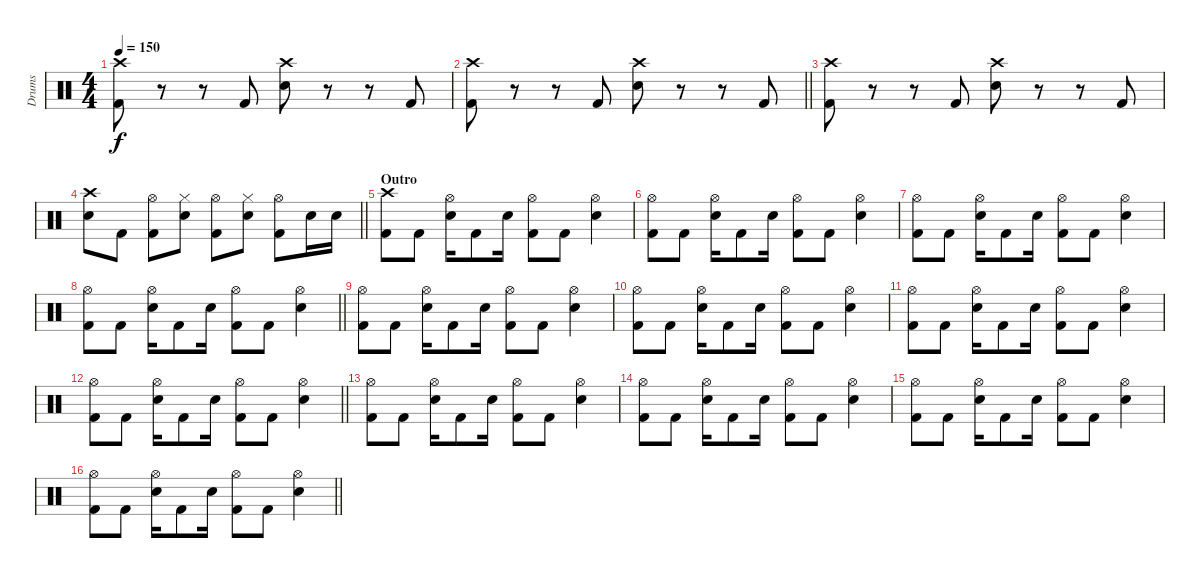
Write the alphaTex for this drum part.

\track ("Drums" "Drums") {instrument percussion}
\staff {score}
\articulation defaults
\ts (4 4)
\tempo 150
\clef neutral
\ks c
("Crash high (hit)" "Kick (hit) 2").8{dy f} r.8 r.8 "Kick (hit) 2".8 ("Crash high (hit)" "Electric Snare (hit)").8 r.8 r.8 "Kick (hit) 2".8 |
\barLineRight lightlight
("Crash high (hit)" "Kick (hit) 2").8 r.8 r.8 "Kick (hit) 2".8 ("Crash high (hit)" "Electric Snare (hit)").8 r.8 r.8 "Kick (hit) 2".8 |
("Crash high (hit)" "Kick (hit) 2").8 r.8 r.8 "Kick (hit) 2".8 ("Crash high (hit)" "Electric Snare (hit)").8 r.8 r.8 "Kick (hit) 2".8 |
\barLineRight lightlight
("Crash high (hit)" "Electric Snare (hit)").8 "Kick (hit) 2".8 ("Hi-Hat (open)" "Kick (hit) 2").8 ("Hi-Hat (closed)" "Electric Snare (hit)").8 ("Hi-Hat (open)" "Kick (hit) 2").8 ("Hi-Hat (closed)" "Electric Snare (hit)").8 ("Hi-Hat (open)" "Kick (hit) 2").8 "Electric Snare (hit)".16 "Electric Snare (hit)".16 |
\section ("" "Outro")
("Crash high (hit)" "Kick (hit) 2").8 "Kick (hit) 2".8 ("Hi-Hat (open)" "Electric Snare (hit)").16 "Kick (hit) 2".8 "Electric Snare (hit)".16 ("Hi-Hat (open)" "Kick (hit) 2").8 "Kick (hit) 2".8 ("Hi-Hat (open)" "Electric Snare (hit)").4 |
("Hi-Hat (open)" "Kick (hit) 2").8 "Kick (hit) 2".8 ("Hi-Hat (open)" "Electric Snare (hit)").16 "Kick (hit) 2".8 "Electric Snare (hit)".16 ("Hi-Hat (open)" "Kick (hit) 2").8 "Kick (hit) 2".8 ("Hi-Hat (open)" "Electric Snare (hit)").4 |
("Hi-Hat (open)" "Kick (hit) 2").8 "Kick (hit) 2".8 ("Hi-Hat (open)" "Electric Snare (hit)").16 "Kick (hit) 2".8 "Electric Snare (hit)".16 ("Hi-Hat (open)" "Kick (hit) 2").8 "Kick (hit) 2".8 ("Hi-Hat (open)" "Electric Snare (hit)").4 |
\barLineRight lightlight
("Hi-Hat (open)" "Kick (hit) 2").8 "Kick (hit) 2".8 ("Hi-Hat (open)" "Electric Snare (hit)").16 "Kick (hit) 2".8 "Electric Snare (hit)".16 ("Hi-Hat (open)" "Kick (hit) 2").8 "Kick (hit) 2".8 ("Hi-Hat (open)" "Electric Snare (hit)").4 |
("Hi-Hat (open)" "Kick (hit) 2").8 "Kick (hit) 2".8 ("Hi-Hat (open)" "Electric Snare (hit)").16 "Kick (hit) 2".8 "Electric Snare (hit)".16 ("Hi-Hat (open)" "Kick (hit) 2").8 "Kick (hit) 2".8 ("Hi-Hat (open)" "Electric Snare (hit)").4 |
("Hi-Hat (open)" "Kick (hit) 2").8 "Kick (hit) 2".8 ("Hi-Hat (open)" "Electric Snare (hit)").16 "Kick (hit) 2".8 "Electric Snare (hit)".16 ("Hi-Hat (open)" "Kick (hit) 2").8 "Kick (hit) 2".8 ("Hi-Hat (open)" "Electric Snare (hit)").4 |
("Hi-Hat (open)" "Kick (hit) 2").8 "Kick (hit) 2".8 ("Hi-Hat (open)" "Electric Snare (hit)").16 "Kick (hit) 2".8 "Electric Snare (hit)".16 ("Hi-Hat (open)" "Kick (hit) 2").8 "Kick (hit) 2".8 ("Hi-Hat (open)" "Electric Snare (hit)").4 |
\barLineRight lightlight
("Hi-Hat (open)" "Kick (hit) 2").8 "Kick (hit) 2".8 ("Hi-Hat (open)" "Electric Snare (hit)").16 "Kick (hit) 2".8 "Electric Snare (hit)".16 ("Hi-Hat (open)" "Kick (hit) 2").8 "Kick (hit) 2".8 ("Hi-Hat (open)" "Electric Snare (hit)").4 |
("Hi-Hat (open)" "Kick (hit) 2").8 "Kick (hit) 2".8 ("Hi-Hat (open)" "Electric Snare (hit)").16 "Kick (hit) 2".8 "Electric Snare (hit)".16 ("Hi-Hat (open)" "Kick (hit) 2").8 "Kick (hit) 2".8 ("Hi-Hat (open)" "Electric Snare (hit)").4 |
("Hi-Hat (open)" "Kick (hit) 2").8 "Kick (hit) 2".8 ("Hi-Hat (open)" "Electric Snare (hit)").16 "Kick (hit) 2".8 "Electric Snare (hit)".16 ("Hi-Hat (open)" "Kick (hit) 2").8 "Kick (hit) 2".8 ("Hi-Hat (open)" "Electric Snare (hit)").4 |
("Hi-Hat (open)" "Kick (hit) 2").8 "Kick (hit) 2".8 ("Hi-Hat (open)" "Electric Snare (hit)").16 "Kick (hit) 2".8 "Electric Snare (hit)".16 ("Hi-Hat (open)" "Kick (hit) 2").8 "Kick (hit) 2".8 ("Hi-Hat (open)" "Electric Snare (hit)").4 |
\barLineRight lightlight
("Hi-Hat (open)" "Kick (hit) 2").8 "Kick (hit) 2".8 ("Hi-Hat (open)" "Electric Snare (hit)").16 "Kick (hit) 2".8 "Electric Snare (hit)".16 ("Hi-Hat (open)" "Kick (hit) 2").8 "Kick (hit) 2".8 ("Hi-Hat (open)" "Electric Snare (hit)").4
